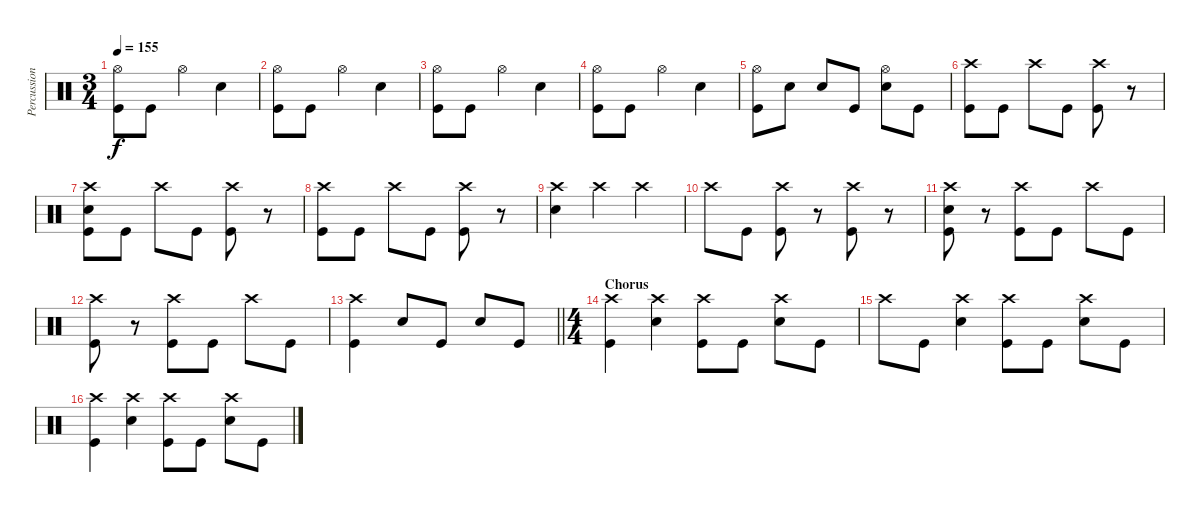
\track ("Percussion" "Percussion") {instrument percussion}
\staff {score}
\articulation defaults
\ts (3 4)
\tempo 155
\clef neutral
\ks c
("Hi-Hat (open)" "Kick (hit)").8{dy f} "Kick (hit)".8 "Hi-Hat (open)".4 "Snare (hit) 2".4 |
("Hi-Hat (open)" "Kick (hit)").8 "Kick (hit)".8 "Hi-Hat (open)".4 "Snare (hit) 2".4 |
("Hi-Hat (open)" "Kick (hit)").8 "Kick (hit)".8 "Hi-Hat (open)".4 "Snare (hit) 2".4 |
("Hi-Hat (open)" "Kick (hit)").8 "Kick (hit)".8 "Hi-Hat (open)".4 "Snare (hit) 2".4 |
("Hi-Hat (open)" "Kick (hit)").8 "Snare (hit) 2".8 "Snare (hit) 2".8 "Kick (hit)".8 ("Hi-Hat (open)" "Snare (hit) 2").8 "Kick (hit)".8 |
("Crash high (hit)" "Kick (hit)").8 "Kick (hit)".8 "Crash high (hit)".8 "Kick (hit)".8 ("Crash high (hit)" "Kick (hit)").8 r.8 |
("Crash high (hit)" "Snare (hit) 2" "Kick (hit)").8 "Kick (hit)".8 "Crash high (hit)".8 "Kick (hit)".8 ("Crash high (hit)" "Kick (hit)").8 r.8 |
("Crash high (hit)" "Kick (hit)").8 "Kick (hit)".8 "Crash high (hit)".8 "Kick (hit)".8 ("Crash high (hit)" "Kick (hit)").8 r.8 |
("Crash high (hit)" "Snare (hit) 2").4 "Crash high (hit)".4 "Crash high (hit)".4 |
"Crash high (hit)".8 "Kick (hit)".8 ("Crash high (hit)" "Kick (hit)").8 r.8 ("Crash high (hit)" "Kick (hit)").8 r.8 |
("Crash high (hit)" "Snare (hit) 2" "Kick (hit)").8 r.8 ("Crash high (hit)" "Kick (hit)").8 "Kick (hit)".8 "Crash high (hit)".8 "Kick (hit)".8 |
("Crash high (hit)" "Kick (hit)").8 r.8 ("Crash high (hit)" "Kick (hit)").8 "Kick (hit)".8 "Crash high (hit)".8 "Kick (hit)".8 |
\barLineRight lightlight
("Crash high (hit)" "Kick (hit)").4 "Snare (hit) 2".8 "Kick (hit)".8 "Snare (hit) 2".8 "Kick (hit)".8 |
\ts (4 4)
\section ("" "Chorus")
("Crash high (hit)" "Kick (hit)").4 ("Crash high (hit)" "Snare (hit) 2").4 ("Crash high (hit)" "Kick (hit)").8 "Kick (hit)".8 ("Crash high (hit)" "Snare (hit) 2").8 "Kick (hit)".8 |
"Crash high (hit)".8 "Kick (hit)".8 ("Crash high (hit)" "Snare (hit) 2").4 ("Crash high (hit)" "Kick (hit)").8 "Kick (hit)".8 ("Crash high (hit)" "Snare (hit) 2").8 "Kick (hit)".8 |
("Crash high (hit)" "Kick (hit)").4 ("Crash high (hit)" "Snare (hit) 2").4 ("Crash high (hit)" "Kick (hit)").8 "Kick (hit)".8 ("Crash high (hit)" "Snare (hit) 2").8 "Kick (hit)".8
